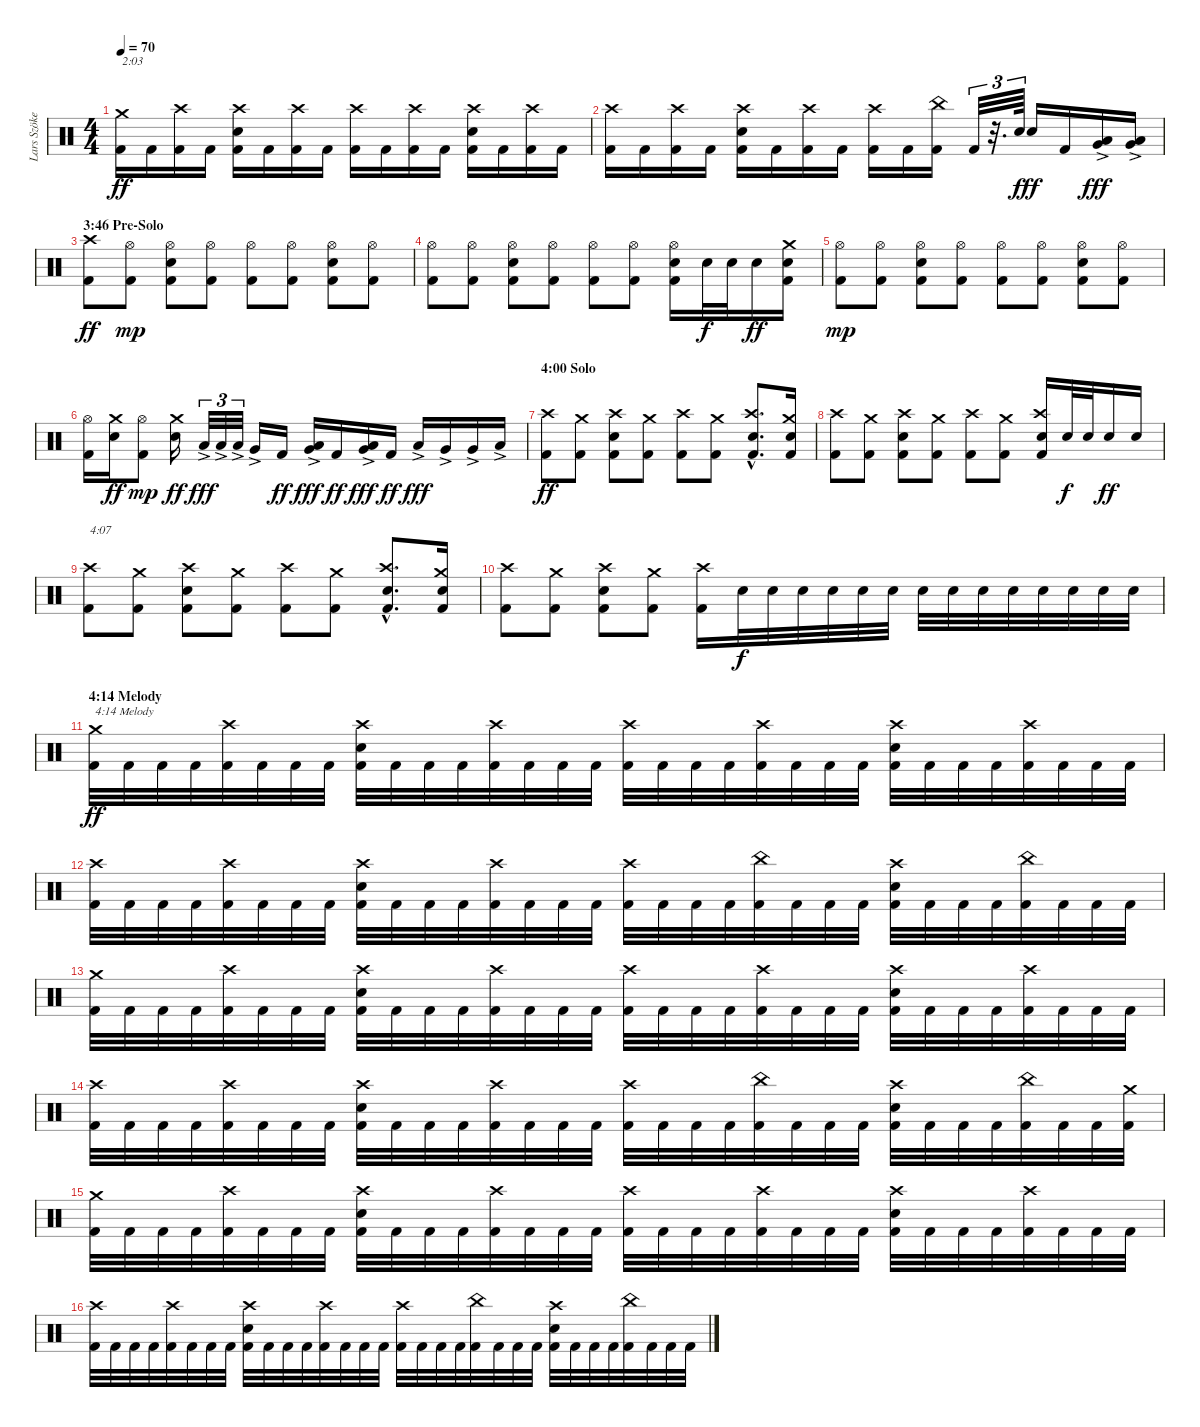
\track ("Lars Szöke (Drums)" "Lars Szöke") {instrument percussion}
\staff {score}
\articulation defaults
\ts (4 4)
\tempo 70
\clef neutral
\ks c
("Kick (hit) 2" "Crash medium (hit)").16{txt "2:03" dy ff} "Kick (hit) 2".16 ("Kick (hit) 2" "Crash high (hit)").16 "Kick (hit) 2".16 ("Kick (hit) 2" "Electric Snare (hit)" "Crash high (hit)").16 "Kick (hit) 2".16 ("Kick (hit) 2" "Crash high (hit)").16 "Kick (hit) 2".16 ("Kick (hit) 2" "Crash high (hit)").16 "Kick (hit) 2".16 ("Kick (hit) 2" "Crash high (hit)").16 "Kick (hit) 2".16 ("Kick (hit) 2" "Electric Snare (hit)" "Crash high (hit)").16 "Kick (hit) 2".16 ("Kick (hit) 2" "Crash high (hit)").16 "Kick (hit) 2".16 |
("Kick (hit) 2" "Crash high (hit)").16 "Kick (hit) 2".16 ("Kick (hit) 2" "Crash high (hit)").16 "Kick (hit) 2".16 ("Kick (hit) 2" "Electric Snare (hit)" "Crash high (hit)").16 "Kick (hit) 2".16 ("Kick (hit) 2" "Crash high (hit)").16 "Kick (hit) 2".16 ("Kick (hit) 2" "Crash high (hit)").16 "Kick (hit) 2".16 ("Kick (hit) 2" "China (hit)").16 "Kick (hit) 2".32{tu (3 2)} r.32{d tu (3 2)} "Electric Snare (hit)".64{tu (3 2) dy f} "Electric Snare (hit)".16{dy ff} "Kick (hit) 2".16 ("Low Tom (hit)"{ac} "Very Low Tom (hit)"{ac}).16{dy fff} ("Very Low Tom (hit)"{ac} "Low Floor Tom (hit)"{ac}).16 |
\section ("" "3:46 Pre-Solo")
("Kick (hit) 2" "Crash high (hit)").8{dy ff} ("Kick (hit) 2" "Hi-Hat (open)").8{dy mp} ("Kick (hit) 2" "Electric Snare (hit)" "Hi-Hat (open)").8 ("Kick (hit) 2" "Hi-Hat (open)").8 ("Kick (hit) 2" "Hi-Hat (open)").8 ("Kick (hit) 2" "Hi-Hat (open)").8 ("Kick (hit) 2" "Electric Snare (hit)" "Hi-Hat (open)").8 ("Kick (hit) 2" "Hi-Hat (open)").8 |
("Kick (hit) 2" "Hi-Hat (open)").8 ("Kick (hit) 2" "Hi-Hat (open)").8 ("Kick (hit) 2" "Electric Snare (hit)" "Hi-Hat (open)").8 ("Kick (hit) 2" "Hi-Hat (open)").8 ("Kick (hit) 2" "Hi-Hat (open)").8 ("Kick (hit) 2" "Hi-Hat (open)").8 ("Kick (hit) 2" "Electric Snare (hit)" "Hi-Hat (open)").16 "Electric Snare (hit)".32{dy f} "Electric Snare (hit)".32 "Electric Snare (hit)".16{dy ff} ("Kick (hit) 2" "Electric Snare (hit)" "Crash medium (hit)").16 |
("Kick (hit) 2" "Hi-Hat (open)").8{dy mp} ("Kick (hit) 2" "Hi-Hat (open)").8 ("Kick (hit) 2" "Electric Snare (hit)" "Hi-Hat (open)").8 ("Kick (hit) 2" "Hi-Hat (open)").8 ("Kick (hit) 2" "Hi-Hat (open)").8 ("Kick (hit) 2" "Hi-Hat (open)").8 ("Kick (hit) 2" "Electric Snare (hit)" "Hi-Hat (open)").8 ("Kick (hit) 2" "Hi-Hat (open)").8 |
("Kick (hit) 2" "Hi-Hat (open)").16 ("Electric Snare (hit)" "Crash medium (hit)").16{dy ff} ("Kick (hit) 2" "Hi-Hat (open)").8{dy mp} ("Electric Snare (hit)" "Crash medium (hit)").16{dy ff} "Low Tom (hit)"{ac}.32{tu (3 2) dy fff} "Low Tom (hit)"{ac}.32{tu (3 2)} "Low Tom (hit)"{ac}.32{tu (3 2)} "Very Low Tom (hit)"{ac}.16 "Kick (hit) 2".16{dy ff} ("Low Tom (hit)"{ac} "Very Low Tom (hit)"{ac}).16{dy fff} "Kick (hit) 2".16{dy ff} ("Very Low Tom (hit)"{ac} "Low Floor Tom (hit)"{ac}).16{dy fff} "Kick (hit) 2".16{dy ff} "Low Tom (hit)"{ac}.16{dy fff} "Very Low Tom (hit)"{ac}.16 "Very Low Tom (hit)"{ac}.16 "Low Floor Tom (hit)"{ac}.16 |
\section ("" "4:00 Solo")
("Kick (hit) 2" "Crash high (hit)").8{dy ff} ("Kick (hit) 2" "Crash medium (hit)").8 ("Kick (hit) 2" "Electric Snare (hit)" "Crash high (hit)").8 ("Kick (hit) 2" "Crash medium (hit)").8 ("Kick (hit) 2" "Crash high (hit)").8 ("Kick (hit) 2" "Crash medium (hit)").8 ("Kick (hit) 2"{hac} "Electric Snare (hit)"{hac} "Crash high (hit)"{hac}).8{d} ("Kick (hit) 2" "Electric Snare (hit)" "Crash medium (hit)").16 |
("Kick (hit) 2" "Crash high (hit)").8 ("Kick (hit) 2" "Crash medium (hit)").8 ("Kick (hit) 2" "Electric Snare (hit)" "Crash high (hit)").8 ("Kick (hit) 2" "Crash medium (hit)").8 ("Kick (hit) 2" "Crash high (hit)").8 ("Kick (hit) 2" "Crash medium (hit)").8 ("Kick (hit) 2" "Electric Snare (hit)" "Crash high (hit)").16 "Electric Snare (hit)".32{dy f} "Electric Snare (hit)".32 "Electric Snare (hit)".16{dy ff} "Electric Snare (hit)".16 |
("Kick (hit) 2" "Crash high (hit)").8{txt "4:07"} ("Kick (hit) 2" "Crash medium (hit)").8 ("Kick (hit) 2" "Electric Snare (hit)" "Crash high (hit)").8 ("Kick (hit) 2" "Crash medium (hit)").8 ("Kick (hit) 2" "Crash high (hit)").8 ("Kick (hit) 2" "Crash medium (hit)").8 ("Kick (hit) 2"{hac} "Electric Snare (hit)"{hac} "Crash high (hit)"{hac}).8{d} ("Kick (hit) 2" "Electric Snare (hit)" "Crash medium (hit)").16 |
("Kick (hit) 2" "Crash high (hit)").8 ("Kick (hit) 2" "Crash medium (hit)").8 ("Kick (hit) 2" "Electric Snare (hit)" "Crash high (hit)").8 ("Kick (hit) 2" "Crash medium (hit)").8 ("Kick (hit) 2" "Crash high (hit)").16 "Electric Snare (hit)".32{dy f} "Electric Snare (hit)".32 "Electric Snare (hit)".32 "Electric Snare (hit)".32 "Electric Snare (hit)".32 "Electric Snare (hit)".32 "Electric Snare (hit)".32 "Electric Snare (hit)".32 "Electric Snare (hit)".32 "Electric Snare (hit)".32 "Electric Snare (hit)".32 "Electric Snare (hit)".32 "Electric Snare (hit)".32 "Electric Snare (hit)".32 |
\section ("" "4:14 Melody")
("Kick (hit) 2" "Crash medium (hit)").32{txt "4:14 Melody" dy ff} "Kick (hit) 2".32 "Kick (hit) 2".32 "Kick (hit) 2".32 ("Kick (hit) 2" "Crash high (hit)").32 "Kick (hit) 2".32 "Kick (hit) 2".32 "Kick (hit) 2".32 ("Kick (hit) 2" "Electric Snare (hit)" "Crash high (hit)").32 "Kick (hit) 2".32 "Kick (hit) 2".32 "Kick (hit) 2".32 ("Kick (hit) 2" "Crash high (hit)").32 "Kick (hit) 2".32 "Kick (hit) 2".32 "Kick (hit) 2".32 ("Kick (hit) 2" "Crash high (hit)").32 "Kick (hit) 2".32 "Kick (hit) 2".32 "Kick (hit) 2".32 ("Kick (hit) 2" "Crash high (hit)").32 "Kick (hit) 2".32 "Kick (hit) 2".32 "Kick (hit) 2".32 ("Kick (hit) 2" "Electric Snare (hit)" "Crash high (hit)").32 "Kick (hit) 2".32 "Kick (hit) 2".32 "Kick (hit) 2".32 ("Kick (hit) 2" "Crash high (hit)").32 "Kick (hit) 2".32 "Kick (hit) 2".32 "Kick (hit) 2".32 |
("Kick (hit) 2" "Crash high (hit)").32 "Kick (hit) 2".32 "Kick (hit) 2".32 "Kick (hit) 2".32 ("Kick (hit) 2" "Crash high (hit)").32 "Kick (hit) 2".32 "Kick (hit) 2".32 "Kick (hit) 2".32 ("Kick (hit) 2" "Electric Snare (hit)" "Crash high (hit)").32 "Kick (hit) 2".32 "Kick (hit) 2".32 "Kick (hit) 2".32 ("Kick (hit) 2" "Crash high (hit)").32 "Kick (hit) 2".32 "Kick (hit) 2".32 "Kick (hit) 2".32 ("Kick (hit) 2" "Crash high (hit)").32 "Kick (hit) 2".32 "Kick (hit) 2".32 "Kick (hit) 2".32 ("Kick (hit) 2" "China (hit)").32 "Kick (hit) 2".32 "Kick (hit) 2".32 "Kick (hit) 2".32 ("Kick (hit) 2" "Electric Snare (hit)" "Crash high (hit)").32 "Kick (hit) 2".32 "Kick (hit) 2".32 "Kick (hit) 2".32 ("Kick (hit) 2" "China (hit)").32 "Kick (hit) 2".32 "Kick (hit) 2".32 "Kick (hit) 2".32 |
("Kick (hit) 2" "Crash medium (hit)").32 "Kick (hit) 2".32 "Kick (hit) 2".32 "Kick (hit) 2".32 ("Kick (hit) 2" "Crash high (hit)").32 "Kick (hit) 2".32 "Kick (hit) 2".32 "Kick (hit) 2".32 ("Kick (hit) 2" "Electric Snare (hit)" "Crash high (hit)").32 "Kick (hit) 2".32 "Kick (hit) 2".32 "Kick (hit) 2".32 ("Kick (hit) 2" "Crash high (hit)").32 "Kick (hit) 2".32 "Kick (hit) 2".32 "Kick (hit) 2".32 ("Kick (hit) 2" "Crash high (hit)").32 "Kick (hit) 2".32 "Kick (hit) 2".32 "Kick (hit) 2".32 ("Kick (hit) 2" "Crash high (hit)").32 "Kick (hit) 2".32 "Kick (hit) 2".32 "Kick (hit) 2".32 ("Kick (hit) 2" "Electric Snare (hit)" "Crash high (hit)").32 "Kick (hit) 2".32 "Kick (hit) 2".32 "Kick (hit) 2".32 ("Kick (hit) 2" "Crash high (hit)").32 "Kick (hit) 2".32 "Kick (hit) 2".32 "Kick (hit) 2".32 |
("Kick (hit) 2" "Crash high (hit)").32 "Kick (hit) 2".32 "Kick (hit) 2".32 "Kick (hit) 2".32 ("Kick (hit) 2" "Crash high (hit)").32 "Kick (hit) 2".32 "Kick (hit) 2".32 "Kick (hit) 2".32 ("Kick (hit) 2" "Electric Snare (hit)" "Crash high (hit)").32 "Kick (hit) 2".32 "Kick (hit) 2".32 "Kick (hit) 2".32 ("Kick (hit) 2" "Crash high (hit)").32 "Kick (hit) 2".32 "Kick (hit) 2".32 "Kick (hit) 2".32 ("Kick (hit) 2" "Crash high (hit)").32 "Kick (hit) 2".32 "Kick (hit) 2".32 "Kick (hit) 2".32 ("Kick (hit) 2" "China (hit)").32 "Kick (hit) 2".32 "Kick (hit) 2".32 "Kick (hit) 2".32 ("Kick (hit) 2" "Electric Snare (hit)" "Crash high (hit)").32 "Kick (hit) 2".32 "Kick (hit) 2".32 "Kick (hit) 2".32 ("Kick (hit) 2" "China (hit)").32 "Kick (hit) 2".32 "Kick (hit) 2".32 ("Kick (hit) 2" "Crash medium (hit)").32 |
("Kick (hit) 2" "Crash medium (hit)").32 "Kick (hit) 2".32 "Kick (hit) 2".32 "Kick (hit) 2".32 ("Kick (hit) 2" "Crash high (hit)").32 "Kick (hit) 2".32 "Kick (hit) 2".32 "Kick (hit) 2".32 ("Kick (hit) 2" "Electric Snare (hit)" "Crash high (hit)").32 "Kick (hit) 2".32 "Kick (hit) 2".32 "Kick (hit) 2".32 ("Kick (hit) 2" "Crash high (hit)").32 "Kick (hit) 2".32 "Kick (hit) 2".32 "Kick (hit) 2".32 ("Kick (hit) 2" "Crash high (hit)").32 "Kick (hit) 2".32 "Kick (hit) 2".32 "Kick (hit) 2".32 ("Kick (hit) 2" "Crash high (hit)").32 "Kick (hit) 2".32 "Kick (hit) 2".32 "Kick (hit) 2".32 ("Kick (hit) 2" "Electric Snare (hit)" "Crash high (hit)").32 "Kick (hit) 2".32 "Kick (hit) 2".32 "Kick (hit) 2".32 ("Kick (hit) 2" "Crash high (hit)").32 "Kick (hit) 2".32 "Kick (hit) 2".32 "Kick (hit) 2".32 |
("Kick (hit) 2" "Crash high (hit)").32 "Kick (hit) 2".32 "Kick (hit) 2".32 "Kick (hit) 2".32 ("Kick (hit) 2" "Crash high (hit)").32 "Kick (hit) 2".32 "Kick (hit) 2".32 "Kick (hit) 2".32 ("Kick (hit) 2" "Electric Snare (hit)" "Crash high (hit)").32 "Kick (hit) 2".32 "Kick (hit) 2".32 "Kick (hit) 2".32 ("Kick (hit) 2" "Crash high (hit)").32 "Kick (hit) 2".32 "Kick (hit) 2".32 "Kick (hit) 2".32 ("Kick (hit) 2" "Crash high (hit)").32 "Kick (hit) 2".32 "Kick (hit) 2".32 "Kick (hit) 2".32 ("Kick (hit) 2" "China (hit)").32 "Kick (hit) 2".32 "Kick (hit) 2".32 "Kick (hit) 2".32 ("Kick (hit) 2" "Electric Snare (hit)" "Crash high (hit)").32 "Kick (hit) 2".32 "Kick (hit) 2".32 "Kick (hit) 2".32 ("Kick (hit) 2" "China (hit)").32 "Kick (hit) 2".32 "Kick (hit) 2".32 "Kick (hit) 2".32
